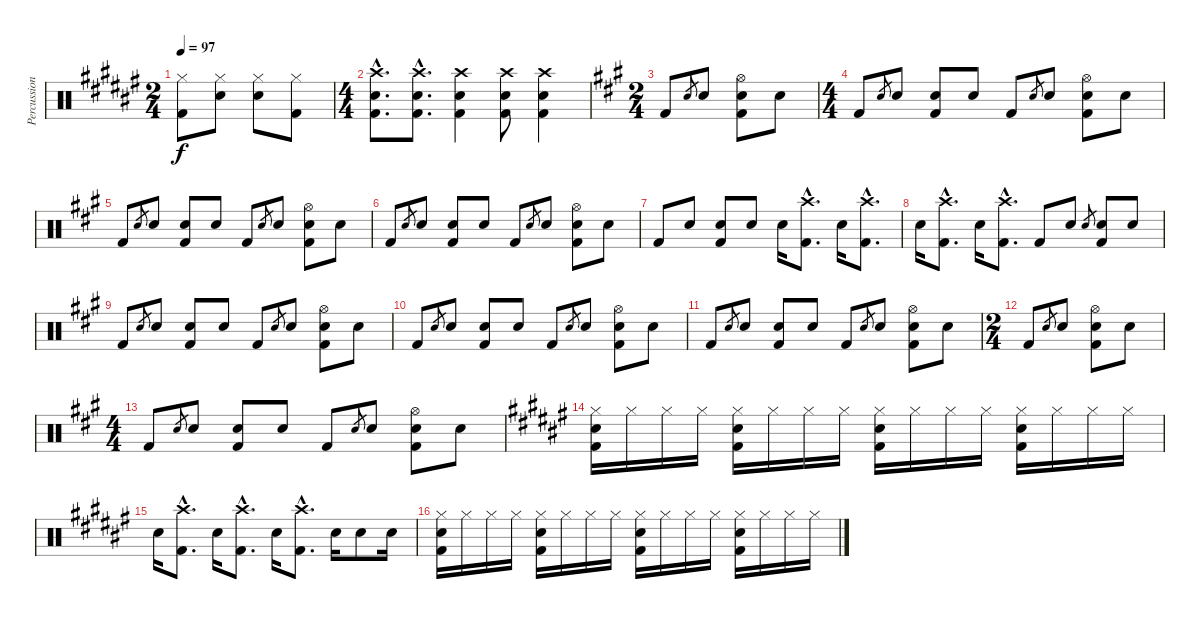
\track ("Percussion (John Bonham)" "Percussion") {instrument percussion}
\staff {score}
\articulation defaults
\ts (2 4)
\tempo 97
\clef neutral
\ks f#
("Hi-Hat (closed)" "Kick (hit) 2").8{dy f} ("Hi-Hat (closed)" "Snare (hit) 2").8 ("Hi-Hat (closed)" "Snare (hit) 2").8 ("Hi-Hat (closed)" "Kick (hit) 2").8 |
\ts (4 4)
("Crash high (hit)"{hac} "Snare (hit) 2"{hac} "Kick (hit) 2"{hac}).8{d} ("Crash high (hit)"{hac} "Snare (hit) 2"{hac} "Kick (hit) 2"{hac}).8{d} ("Crash high (hit)" "Snare (hit) 2" "Kick (hit) 2").4 ("Crash high (hit)" "Snare (hit) 2" "Kick (hit) 2").8 ("Crash high (hit)" "Snare (hit) 2" "Kick (hit) 2").4 |
\ts (2 4)
\ks a "Kick (hit) 2".8 "Snare (hit) 2".8{gr} "Snare (hit) 2".8
("Hi-Hat (open)" "Snare (hit) 2" "Kick (hit) 2").8 "Snare (hit) 2".8 |
\ts (4 4)
"Kick (hit) 2".8 "Snare (hit) 2".8{gr} "Snare (hit) 2".8 ("Snare (hit) 2" "Kick (hit) 2").8 "Snare (hit) 2".8 "Kick (hit) 2".8 "Snare (hit) 2".8{gr} "Snare (hit) 2".8 ("Hi-Hat (open)" "Snare (hit) 2" "Kick (hit) 2").8 "Snare (hit) 2".8 |
"Kick (hit) 2".8 "Snare (hit) 2".8{gr} "Snare (hit) 2".8 ("Snare (hit) 2" "Kick (hit) 2").8 "Snare (hit) 2".8 "Kick (hit) 2".8 "Snare (hit) 2".8{gr} "Snare (hit) 2".8 ("Hi-Hat (open)" "Snare (hit) 2" "Kick (hit) 2").8 "Snare (hit) 2".8 |
"Kick (hit) 2".8 "Snare (hit) 2".8{gr} "Snare (hit) 2".8 ("Snare (hit) 2" "Kick (hit) 2").8 "Snare (hit) 2".8 "Kick (hit) 2".8 "Snare (hit) 2".8{gr} "Snare (hit) 2".8 ("Hi-Hat (open)" "Snare (hit) 2" "Kick (hit) 2").8 "Snare (hit) 2".8 |
"Kick (hit) 2".8 "Snare (hit) 2".8 ("Snare (hit) 2" "Kick (hit) 2").8 "Snare (hit) 2".8 "Snare (hit) 2".16 ("Crash high (hit)"{hac} "Kick (hit) 2"{hac}).8{d} "Snare (hit) 2".16 ("Crash high (hit)"{hac} "Kick (hit) 2"{hac}).8{d} |
"Snare (hit) 2".16 ("Crash high (hit)"{hac} "Kick (hit) 2"{hac}).8{d} "Snare (hit) 2".16 ("Crash high (hit)"{hac} "Kick (hit) 2"{hac}).8{d} "Kick (hit) 2".8 "Snare (hit) 2".8 "Snare (hit) 2".8{gr} ("Snare (hit) 2" "Kick (hit) 2").8 "Snare (hit) 2".8 |
"Kick (hit) 2".8 "Snare (hit) 2".8{gr} "Snare (hit) 2".8 ("Snare (hit) 2" "Kick (hit) 2").8 "Snare (hit) 2".8 "Kick (hit) 2".8 "Snare (hit) 2".8{gr} "Snare (hit) 2".8 ("Hi-Hat (open)" "Snare (hit) 2" "Kick (hit) 2").8 "Snare (hit) 2".8 |
"Kick (hit) 2".8 "Snare (hit) 2".8{gr} "Snare (hit) 2".8 ("Snare (hit) 2" "Kick (hit) 2").8 "Snare (hit) 2".8 "Kick (hit) 2".8 "Snare (hit) 2".8{gr} "Snare (hit) 2".8 ("Hi-Hat (open)" "Snare (hit) 2" "Kick (hit) 2").8 "Snare (hit) 2".8 |
"Kick (hit) 2".8 "Snare (hit) 2".8{gr} "Snare (hit) 2".8 ("Snare (hit) 2" "Kick (hit) 2").8 "Snare (hit) 2".8 "Kick (hit) 2".8 "Snare (hit) 2".8{gr} "Snare (hit) 2".8 ("Hi-Hat (open)" "Snare (hit) 2" "Kick (hit) 2").8 "Snare (hit) 2".8 |
\ts (2 4)
"Kick (hit) 2".8 "Snare (hit) 2".8{gr} "Snare (hit) 2".8 ("Hi-Hat (open)" "Snare (hit) 2" "Kick (hit) 2").8 "Snare (hit) 2".8 |
\ts (4 4)
"Kick (hit) 2".8 "Snare (hit) 2".8{gr} "Snare (hit) 2".8 ("Snare (hit) 2" "Kick (hit) 2").8 "Snare (hit) 2".8 "Kick (hit) 2".8 "Snare (hit) 2".8{gr} "Snare (hit) 2".8 ("Hi-Hat (open)" "Snare (hit) 2" "Kick (hit) 2").8 "Snare (hit) 2".8 |
\ks f#
("Hi-Hat (closed)" "Snare (hit) 2" "Kick (hit) 2").16 "Hi-Hat (closed)".16 "Hi-Hat (closed)".16 "Hi-Hat (closed)".16 ("Hi-Hat (closed)" "Snare (hit) 2" "Kick (hit) 2").16 "Hi-Hat (closed)".16 "Hi-Hat (closed)".16 "Hi-Hat (closed)".16 ("Hi-Hat (closed)" "Snare (hit) 2" "Kick (hit) 2").16 "Hi-Hat (closed)".16 "Hi-Hat (closed)".16 "Hi-Hat (closed)".16 ("Hi-Hat (closed)" "Snare (hit) 2" "Kick (hit) 2").16 "Hi-Hat (closed)".16 "Hi-Hat (closed)".16 "Hi-Hat (closed)".16 |
"Snare (hit) 2".16 ("Crash high (hit)"{hac} "Kick (hit) 2"{hac}).8{d} "Snare (hit) 2".16 ("Crash high (hit)"{hac} "Kick (hit) 2"{hac}).8{d} "Snare (hit) 2".16 ("Crash high (hit)"{hac} "Kick (hit) 2"{hac}).8{d} "Snare (hit) 2".16 "Snare (hit) 2".8 "Snare (hit) 2".16 |
("Hi-Hat (closed)" "Snare (hit) 2" "Kick (hit) 2").16 "Hi-Hat (closed)".16 "Hi-Hat (closed)".16 "Hi-Hat (closed)".16 ("Hi-Hat (closed)" "Snare (hit) 2" "Kick (hit) 2").16 "Hi-Hat (closed)".16 "Hi-Hat (closed)".16 "Hi-Hat (closed)".16 ("Hi-Hat (closed)" "Snare (hit) 2" "Kick (hit) 2").16 "Hi-Hat (closed)".16 "Hi-Hat (closed)".16 "Hi-Hat (closed)".16 ("Hi-Hat (closed)" "Snare (hit) 2" "Kick (hit) 2").16 "Hi-Hat (closed)".16 "Hi-Hat (closed)".16 "Hi-Hat (closed)".16
